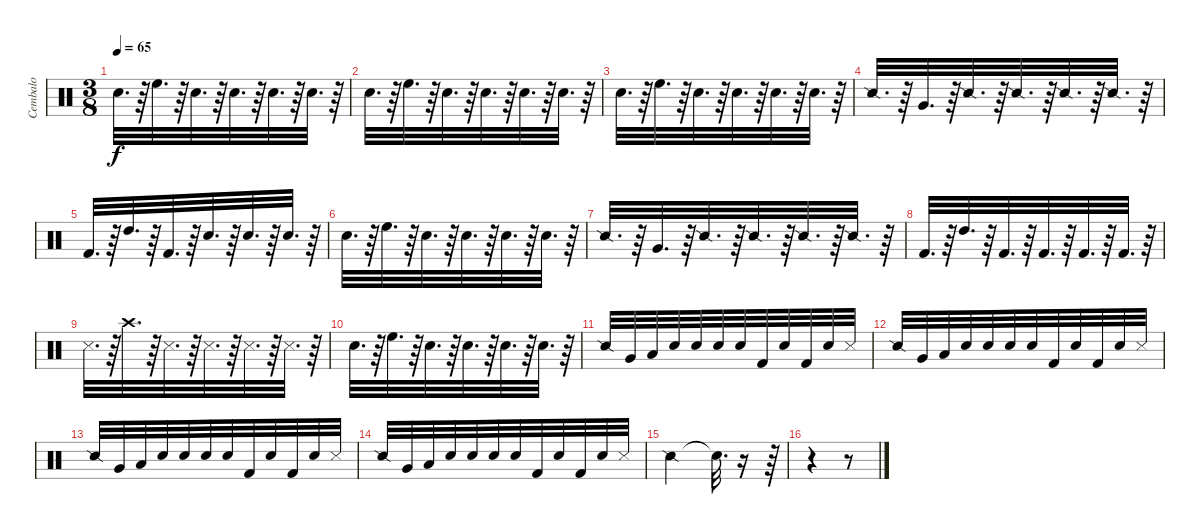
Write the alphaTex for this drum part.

\track ("Cembalo" "Cembalo") {instrument percussion}
\staff {score}
\articulation defaults
\ts (3 8)
\tempo 65
\clef neutral
\ks c "Snare (hit) 2".32{d dy f}
r.64 "High Floor Tom (hit)".32{d} r.64 "Snare (hit) 2".32{d} r.64 "Snare (hit)".32{d} r.64 "Snare (hit)".32{d} r.64 "Snare (hit)".32{d} r.64 |
"Snare (hit) 2".32{d} r.64 "High Floor Tom (hit)".32{d} r.64 "Snare (hit) 2".32{d} r.64 "Snare (hit)".32{d} r.64 "Snare (hit)".32{d} r.64 "Snare (hit)".32{d} r.64 |
"Snare (hit) 2".32{d} r.64 "High Floor Tom (hit)".32{d} r.64 "Snare (hit) 2".32{d} r.64 "Snare (hit)".32{d} r.64 "Snare (hit)".32{d} r.64 "Snare (hit)".32{d} r.64 |
"Snare (side stick) 2".32{d} r.64 "Very Low Tom (hit)".32{d} r.64 "Snare (side stick) 2".32{d} r.64 "Snare (side stick) 2".32{d} r.64 "Snare (side stick) 2".32{d} r.64 "Snare (side stick) 2".32{d} r.64 |
"Kick (hit) 2".32{d} r.64 "High Tom (hit)".32{d} r.64 "Kick (hit) 2".32{d} r.64 "Snare (hit)".32{d} r.64 "Snare (hit)".32{d} r.64 "Snare (hit)".32{d} r.64 |
"Snare (hit) 2".32{d} r.64 "High Floor Tom (hit)".32{d} r.64 "Snare (hit) 2".32{d} r.64 "Snare (hit)".32{d} r.64 "Snare (hit)".32{d} r.64 "Snare (hit)".32{d} r.64 |
"Snare (side stick) 2".32{d} r.64 "Very Low Tom (hit)".32{d} r.64 "Snare (side stick) 2".32{d} r.64 "Snare (side stick) 2".32{d} r.64 "Snare (side stick) 2".32{d} r.64 "Snare (side stick) 2".32{d} r.64 |
"Kick (hit) 2".32{d} r.64 "High Tom (hit)".32{d} r.64 "Kick (hit) 2".32{d} r.64 "Kick (hit) 2".32{d} r.64 "Kick (hit) 2".32{d} r.64 "Kick (hit) 2".32{d} r.64 |
"Snare (side stick) 3".32{d} r.64 "Crash high (hit)".32{d} r.64 "Snare (side stick) 3".32{d} r.64 "Snare (side stick) 3".32{d} r.64 "Snare (side stick) 3".32{d} r.64 "Snare (side stick) 3".32{d} r.64 |
"Snare (hit) 2".32{d} r.64 "High Floor Tom (hit)".32{d} r.64 "Snare (hit) 2".32{d} r.64 "Snare (hit) 2".32{d} r.64 "Snare (hit) 2".32{d} r.64 "Snare (hit) 2".32{d} r.64 |
"Snare (side stick) 2".32 "Very Low Tom (hit)".32 "Low Floor Tom (hit)".32 "Hand Clap (hit)".32 "Snare (hit) 2".32 "Hand Clap (hit)".32 "Snare (hit) 2".32 "Kick (hit) 2".32 "Metronome (bell)".32 "Kick (hit) 2".32 "Metronome (bell)".32 "Metronome (hit)".32 |
"Snare (side stick) 2".32 "Very Low Tom (hit)".32 "Low Floor Tom (hit)".32 "Hand Clap (hit)".32 "Snare (hit) 2".32 "Hand Clap (hit)".32 "Snare (hit) 2".32 "Kick (hit) 2".32 "Metronome (bell)".32 "Kick (hit) 2".32 "Metronome (bell)".32 "Metronome (hit)".32 |
"Snare (side stick) 2".32 "Very Low Tom (hit)".32 "Low Floor Tom (hit)".32 "Hand Clap (hit)".32 "Snare (hit) 2".32 "Hand Clap (hit)".32 "Snare (hit) 2".32 "Kick (hit) 2".32 "Metronome (bell)".32 "Kick (hit) 2".32 "Metronome (bell)".32 "Metronome (hit)".32 |
"Snare (side stick) 2".32 "Very Low Tom (hit)".32 "Low Floor Tom (hit)".32 "Hand Clap (hit)".32 "Snare (hit) 2".32 "Hand Clap (hit)".32 "Snare (hit) 2".32 "Kick (hit) 2".32 "Metronome (bell)".32 "Kick (hit) 2".32 "Metronome (bell)".32 "Metronome (hit)".32 |
"Snare (side stick) 2".4 "Snare (hit)"{t}.32{d} r.16 r.64 |
r.4 r.8
